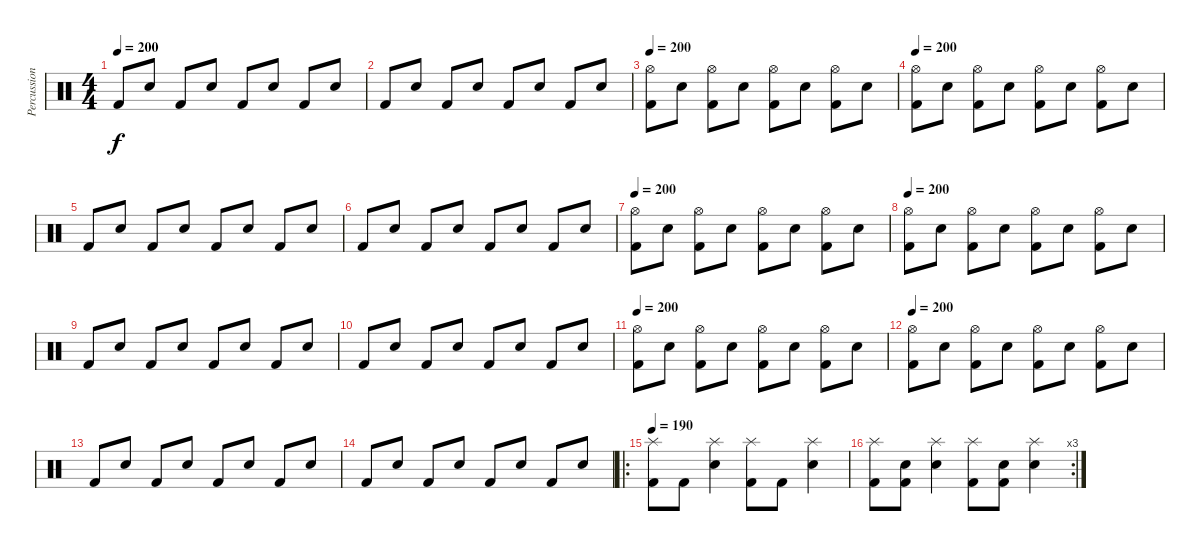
\track ("Percussion" "Percussion") {instrument percussion}
\staff {score}
\articulation defaults
\ts (4 4)
\tempo 200
\clef neutral
\ks c "Kick (hit) 2".8{dy f} "Electric Snare (hit)".8 "Kick (hit) 2".8 "Electric Snare (hit)".8 "Kick (hit) 2".8 "Electric Snare (hit)".8 "Kick (hit) 2".8 "Electric Snare (hit)".8
|
"Kick (hit) 2".8 "Electric Snare (hit)".8 "Kick (hit) 2".8 "Electric Snare (hit)".8 "Kick (hit) 2".8 "Electric Snare (hit)".8 "Kick (hit) 2".8 "Electric Snare (hit)".8 |
\tempo 200
("Hi-Hat (open)" "Kick (hit) 2").8 "Electric Snare (hit)".8 ("Hi-Hat (open)" "Kick (hit) 2").8 "Electric Snare (hit)".8 ("Hi-Hat (open)" "Kick (hit) 2").8 "Electric Snare (hit)".8 ("Hi-Hat (open)" "Kick (hit) 2").8 "Electric Snare (hit)".8 |
\tempo 200
("Hi-Hat (open)" "Kick (hit) 2").8 "Electric Snare (hit)".8 ("Hi-Hat (open)" "Kick (hit) 2").8 "Electric Snare (hit)".8 ("Hi-Hat (open)" "Kick (hit) 2").8 "Electric Snare (hit)".8 ("Hi-Hat (open)" "Kick (hit) 2").8 "Electric Snare (hit)".8 |
"Kick (hit) 2".8 "Electric Snare (hit)".8 "Kick (hit) 2".8 "Electric Snare (hit)".8 "Kick (hit) 2".8 "Electric Snare (hit)".8 "Kick (hit) 2".8 "Electric Snare (hit)".8 |
"Kick (hit) 2".8 "Electric Snare (hit)".8 "Kick (hit) 2".8 "Electric Snare (hit)".8 "Kick (hit) 2".8 "Electric Snare (hit)".8 "Kick (hit) 2".8 "Electric Snare (hit)".8 |
\tempo 200
("Hi-Hat (open)" "Kick (hit) 2").8 "Electric Snare (hit)".8 ("Hi-Hat (open)" "Kick (hit) 2").8 "Electric Snare (hit)".8 ("Hi-Hat (open)" "Kick (hit) 2").8 "Electric Snare (hit)".8 ("Hi-Hat (open)" "Kick (hit) 2").8 "Electric Snare (hit)".8 |
\tempo 200
("Hi-Hat (open)" "Kick (hit) 2").8 "Electric Snare (hit)".8 ("Hi-Hat (open)" "Kick (hit) 2").8 "Electric Snare (hit)".8 ("Hi-Hat (open)" "Kick (hit) 2").8 "Electric Snare (hit)".8 ("Hi-Hat (open)" "Kick (hit) 2").8 "Electric Snare (hit)".8 |
"Kick (hit) 2".8 "Electric Snare (hit)".8 "Kick (hit) 2".8 "Electric Snare (hit)".8 "Kick (hit) 2".8 "Electric Snare (hit)".8 "Kick (hit) 2".8 "Electric Snare (hit)".8 |
"Kick (hit) 2".8 "Electric Snare (hit)".8 "Kick (hit) 2".8 "Electric Snare (hit)".8 "Kick (hit) 2".8 "Electric Snare (hit)".8 "Kick (hit) 2".8 "Electric Snare (hit)".8 |
\tempo 200
("Hi-Hat (open)" "Kick (hit) 2").8 "Electric Snare (hit)".8 ("Hi-Hat (open)" "Kick (hit) 2").8 "Electric Snare (hit)".8 ("Hi-Hat (open)" "Kick (hit) 2").8 "Electric Snare (hit)".8 ("Hi-Hat (open)" "Kick (hit) 2").8 "Electric Snare (hit)".8 |
\tempo 200
("Hi-Hat (open)" "Kick (hit) 2").8 "Electric Snare (hit)".8 ("Hi-Hat (open)" "Kick (hit) 2").8 "Electric Snare (hit)".8 ("Hi-Hat (open)" "Kick (hit) 2").8 "Electric Snare (hit)".8 ("Hi-Hat (open)" "Kick (hit) 2").8 "Electric Snare (hit)".8 |
"Kick (hit) 2".8 "Electric Snare (hit)".8 "Kick (hit) 2".8 "Electric Snare (hit)".8 "Kick (hit) 2".8 "Electric Snare (hit)".8 "Kick (hit) 2".8 "Electric Snare (hit)".8 |
"Kick (hit) 2".8 "Electric Snare (hit)".8 "Kick (hit) 2".8 "Electric Snare (hit)".8 "Kick (hit) 2".8 "Electric Snare (hit)".8 "Kick (hit) 2".8 "Electric Snare (hit)".8 |
\ro
\tempo 190
("Splash (hit)" "Kick (hit) 2").8 "Kick (hit) 2".8 ("Splash (hit)" "Electric Snare (hit)").4 ("Splash (hit)" "Kick (hit) 2").8 "Kick (hit) 2".8 ("Splash (hit)" "Electric Snare (hit)").4 |
\rc 3
("Splash (hit)" "Kick (hit) 2").8 ("Electric Snare (hit)" "Kick (hit) 2").8 ("Splash (hit)" "Electric Snare (hit)").4 ("Splash (hit)" "Kick (hit) 2").8 ("Electric Snare (hit)" "Kick (hit) 2").8 ("Splash (hit)" "Electric Snare (hit)").4
